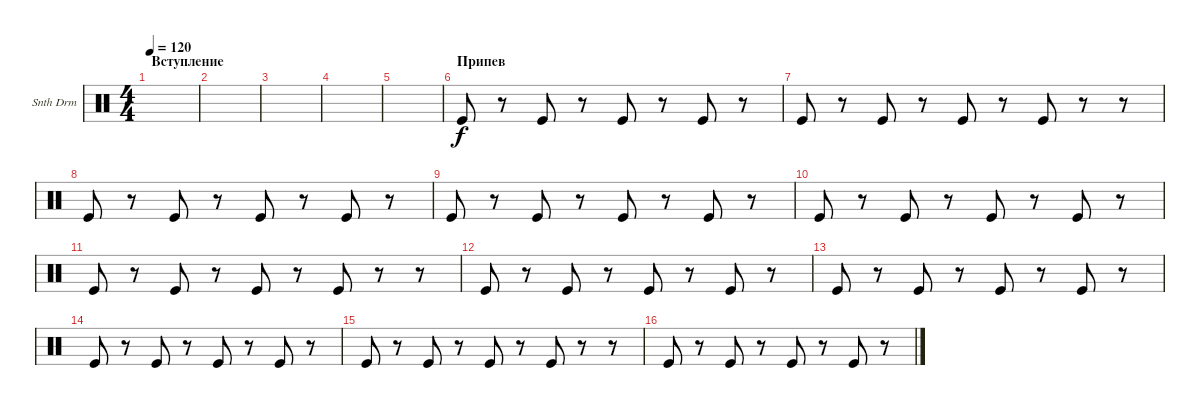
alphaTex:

\defaultSystemsLayout 4
\bracketExtendMode groupsimilarinstruments
\firstSystemTrackNameOrientation horizontal
\otherSystemsTrackNameOrientation horizontal
\track ("Synth Drum" "Snth Drm") {instrument percussion}
\staff {score}
\articulation defaults
\ts (4 4)
\section ("" "Вступление")
\tempo 120
\clef neutral
\ks c
|
|
|
|
|
\section ("" "Припев")
"Kick (hit)".8 r.8 "Kick (hit)".8 r.8 "Kick (hit)".8 r.8 "Kick (hit)".8 r.8 |
"Kick (hit)".8 r.8 "Kick (hit)".8 r.8 "Kick (hit)".8 r.8 "Kick (hit)".8 r.8 r.8 |
"Kick (hit)".8 r.8 "Kick (hit)".8 r.8 "Kick (hit)".8 r.8 "Kick (hit)".8 r.8 |
"Kick (hit)".8 r.8 "Kick (hit)".8 r.8 "Kick (hit)".8 r.8 "Kick (hit)".8 r.8 |
"Kick (hit)".8 r.8 "Kick (hit)".8 r.8 "Kick (hit)".8 r.8 "Kick (hit)".8 r.8 |
"Kick (hit)".8 r.8 "Kick (hit)".8 r.8 "Kick (hit)".8 r.8 "Kick (hit)".8 r.8 r.8 |
"Kick (hit)".8 r.8 "Kick (hit)".8 r.8 "Kick (hit)".8 r.8 "Kick (hit)".8 r.8 |
"Kick (hit)".8 r.8 "Kick (hit)".8 r.8 "Kick (hit)".8 r.8 "Kick (hit)".8 r.8 |
"Kick (hit)".8 r.8 "Kick (hit)".8 r.8 "Kick (hit)".8 r.8 "Kick (hit)".8 r.8 |
"Kick (hit)".8 r.8 "Kick (hit)".8 r.8 "Kick (hit)".8 r.8 "Kick (hit)".8 r.8 r.8 |
"Kick (hit)".8 r.8 "Kick (hit)".8 r.8 "Kick (hit)".8 r.8 "Kick (hit)".8 r.8
